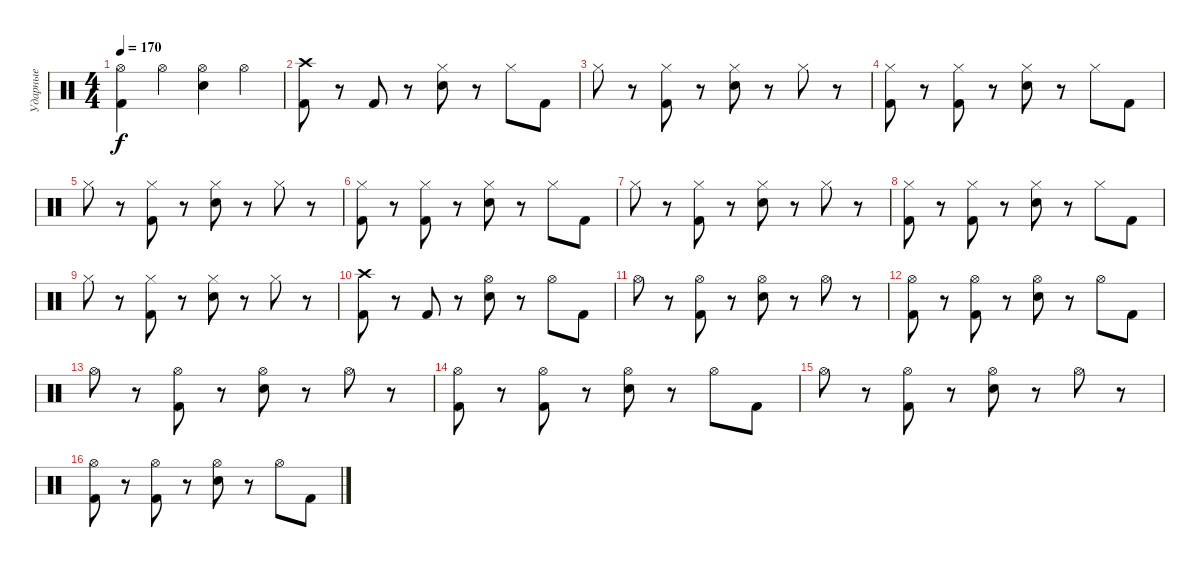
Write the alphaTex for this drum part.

\track ("Ударные" "Ударные") {instrument percussion}
\staff {score}
\articulation defaults
\ts (4 4)
\tempo 170
\clef neutral
\ks c
("Hi-Hat (open)" "Kick (hit) 2").4{dy f} "Hi-Hat (open)".4 ("Hi-Hat (open)" "Electric Snare (hit)").4 "Hi-Hat (open)".4 |
("Crash high (hit)" "Kick (hit) 2").8 r.8 "Kick (hit) 2".8 r.8 ("Hi-Hat (closed)" "Electric Snare (hit)").8 r.8 "Hi-Hat (closed)".8 "Kick (hit) 2".8 |
"Hi-Hat (closed)".8 r.8 ("Hi-Hat (closed)" "Kick (hit) 2").8 r.8 ("Hi-Hat (closed)" "Electric Snare (hit)").8 r.8 "Hi-Hat (closed)".8 r.8 |
("Hi-Hat (closed)" "Kick (hit) 2").8 r.8 ("Hi-Hat (closed)" "Kick (hit) 2").8 r.8 ("Hi-Hat (closed)" "Electric Snare (hit)").8 r.8 "Hi-Hat (closed)".8 "Kick (hit) 2".8 |
"Hi-Hat (closed)".8 r.8 ("Hi-Hat (closed)" "Kick (hit) 2").8 r.8 ("Hi-Hat (closed)" "Electric Snare (hit)").8 r.8 "Hi-Hat (closed)".8 r.8 |
("Hi-Hat (closed)" "Kick (hit) 2").8 r.8 ("Hi-Hat (closed)" "Kick (hit) 2").8 r.8 ("Hi-Hat (closed)" "Electric Snare (hit)").8 r.8 "Hi-Hat (closed)".8 "Kick (hit) 2".8 |
"Hi-Hat (closed)".8 r.8 ("Hi-Hat (closed)" "Kick (hit) 2").8 r.8 ("Hi-Hat (closed)" "Electric Snare (hit)").8 r.8 "Hi-Hat (closed)".8 r.8 |
("Hi-Hat (closed)" "Kick (hit) 2").8 r.8 ("Hi-Hat (closed)" "Kick (hit) 2").8 r.8 ("Hi-Hat (closed)" "Electric Snare (hit)").8 r.8 "Hi-Hat (closed)".8 "Kick (hit) 2".8 |
"Hi-Hat (closed)".8 r.8 ("Hi-Hat (closed)" "Kick (hit) 2").8 r.8 ("Hi-Hat (closed)" "Electric Snare (hit)").8 r.8 "Hi-Hat (closed)".8 r.8 |
("Crash high (hit)" "Kick (hit) 2").8 r.8 "Kick (hit) 2".8 r.8 ("Hi-Hat (open)" "Electric Snare (hit)").8 r.8 "Hi-Hat (open)".8 "Kick (hit) 2".8 |
"Hi-Hat (open)".8 r.8 ("Hi-Hat (open)" "Kick (hit) 2").8 r.8 ("Hi-Hat (open)" "Electric Snare (hit)").8 r.8 "Hi-Hat (open)".8 r.8 |
("Hi-Hat (open)" "Kick (hit) 2").8 r.8 ("Hi-Hat (open)" "Kick (hit) 2").8 r.8 ("Hi-Hat (open)" "Electric Snare (hit)").8 r.8 "Hi-Hat (open)".8 "Kick (hit) 2".8 |
"Hi-Hat (open)".8 r.8 ("Hi-Hat (open)" "Kick (hit) 2").8 r.8 ("Hi-Hat (open)" "Electric Snare (hit)").8 r.8 "Hi-Hat (open)".8 r.8 |
("Hi-Hat (open)" "Kick (hit) 2").8 r.8 ("Hi-Hat (open)" "Kick (hit) 2").8 r.8 ("Hi-Hat (open)" "Electric Snare (hit)").8 r.8 "Hi-Hat (open)".8 "Kick (hit) 2".8 |
"Hi-Hat (open)".8 r.8 ("Hi-Hat (open)" "Kick (hit) 2").8 r.8 ("Hi-Hat (open)" "Electric Snare (hit)").8 r.8 "Hi-Hat (open)".8 r.8 |
("Hi-Hat (open)" "Kick (hit) 2").8 r.8 ("Hi-Hat (open)" "Kick (hit) 2").8 r.8 ("Hi-Hat (open)" "Electric Snare (hit)").8 r.8 "Hi-Hat (open)".8 "Kick (hit) 2".8
